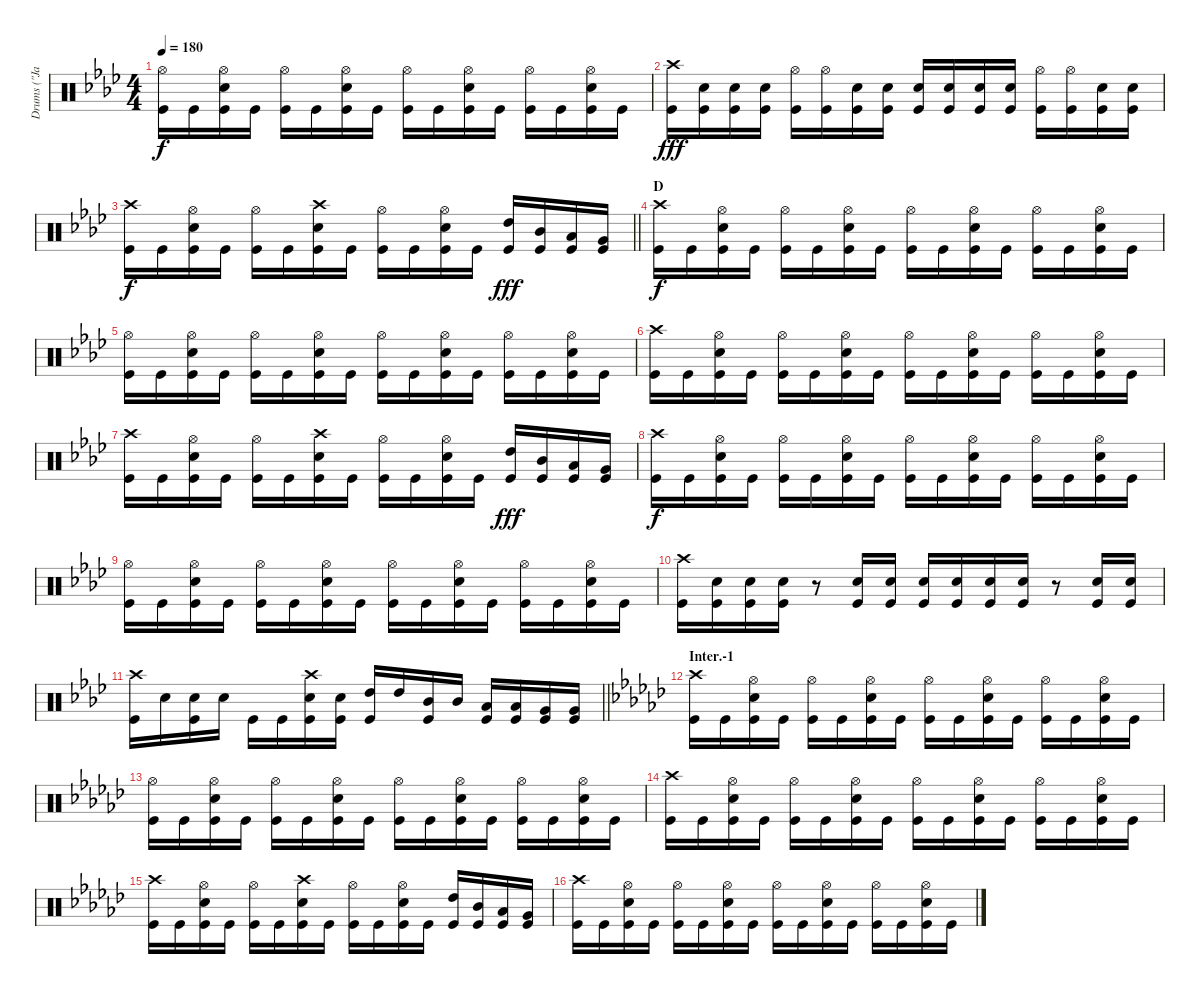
\track ("Drums (\"Jane\")" "Drums (\"Ja") {instrument percussion}
\staff {score}
\articulation defaults
\ts (4 4)
\tempo 180
\clef neutral
\ks ab
("Hi-Hat (open)" "Kick (hit)").16{dy f} "Kick (hit)".16 ("Hi-Hat (open)" "Snare (hit) 2" "Kick (hit)").16 "Kick (hit)".16 ("Hi-Hat (open)" "Kick (hit)").16 "Kick (hit)".16 ("Hi-Hat (open)" "Snare (hit) 2" "Kick (hit)").16 "Kick (hit)".16 ("Hi-Hat (open)" "Kick (hit)").16 "Kick (hit)".16 ("Hi-Hat (open)" "Snare (hit) 2" "Kick (hit)").16 "Kick (hit)".16 ("Hi-Hat (open)" "Kick (hit)").16 "Kick (hit)".16 ("Hi-Hat (open)" "Snare (hit) 2" "Kick (hit)").16 "Kick (hit)".16 |
("Crash high (hit)" "Kick (hit)").16{dy fff} ("Snare (hit) 2" "Kick (hit)").16 ("Snare (hit) 2" "Kick (hit)").16 ("Snare (hit) 2" "Kick (hit)").16 ("Hi-Hat (open)" "Kick (hit)").16 ("Hi-Hat (open)" "Kick (hit)").16 ("Snare (hit) 2" "Kick (hit)").16 ("Snare (hit) 2" "Kick (hit)").16 ("Snare (hit) 2" "Kick (hit)").16 ("Snare (hit) 2" "Kick (hit)").16 ("Snare (hit) 2" "Kick (hit)").16 ("Snare (hit) 2" "Kick (hit)").16 ("Hi-Hat (open)" "Kick (hit)").16 ("Hi-Hat (open)" "Kick (hit)").16 ("Snare (hit) 2" "Kick (hit)").16 ("Snare (hit) 2" "Kick (hit)").16 |
\barLineRight lightlight
("Crash high (hit)" "Kick (hit)").16{dy f} "Kick (hit)".16 ("Hi-Hat (open)" "Snare (hit) 2" "Kick (hit)").16 "Kick (hit)".16 ("Hi-Hat (open)" "Kick (hit)").16 "Kick (hit)".16 ("Crash high (hit)" "Snare (hit) 2" "Kick (hit)").16 "Kick (hit)".16 ("Hi-Hat (open)" "Kick (hit)").16 "Kick (hit)".16 ("Hi-Hat (open)" "Snare (hit) 2" "Kick (hit)").16 "Kick (hit)".16 ("High Tom (hit)" "Kick (hit)").16{dy fff} ("Mid Tom (hit)" "Kick (hit)").16 ("Low Tom (hit)" "Kick (hit)").16 ("Very Low Tom (hit)" "Kick (hit)").16 |
\section ("" "D")
("Crash high (hit)" "Kick (hit)").16{dy f} "Kick (hit)".16 ("Hi-Hat (open)" "Snare (hit) 2" "Kick (hit)").16 "Kick (hit)".16 ("Hi-Hat (open)" "Kick (hit)").16 "Kick (hit)".16 ("Hi-Hat (open)" "Snare (hit) 2" "Kick (hit)").16 "Kick (hit)".16 ("Hi-Hat (open)" "Kick (hit)").16 "Kick (hit)".16 ("Hi-Hat (open)" "Snare (hit) 2" "Kick (hit)").16 "Kick (hit)".16 ("Hi-Hat (open)" "Kick (hit)").16 "Kick (hit)".16 ("Hi-Hat (open)" "Snare (hit) 2" "Kick (hit)").16 "Kick (hit)".16 |
("Hi-Hat (open)" "Kick (hit)").16 "Kick (hit)".16 ("Hi-Hat (open)" "Snare (hit) 2" "Kick (hit)").16 "Kick (hit)".16 ("Hi-Hat (open)" "Kick (hit)").16 "Kick (hit)".16 ("Hi-Hat (open)" "Snare (hit) 2" "Kick (hit)").16 "Kick (hit)".16 ("Hi-Hat (open)" "Kick (hit)").16 "Kick (hit)".16 ("Hi-Hat (open)" "Snare (hit) 2" "Kick (hit)").16 "Kick (hit)".16 ("Hi-Hat (open)" "Kick (hit)").16 "Kick (hit)".16 ("Hi-Hat (open)" "Snare (hit) 2" "Kick (hit)").16 "Kick (hit)".16 |
("Crash high (hit)" "Kick (hit)").16 "Kick (hit)".16 ("Hi-Hat (open)" "Snare (hit) 2" "Kick (hit)").16 "Kick (hit)".16 ("Hi-Hat (open)" "Kick (hit)").16 "Kick (hit)".16 ("Hi-Hat (open)" "Snare (hit) 2" "Kick (hit)").16 "Kick (hit)".16 ("Hi-Hat (open)" "Kick (hit)").16 "Kick (hit)".16 ("Hi-Hat (open)" "Snare (hit) 2" "Kick (hit)").16 "Kick (hit)".16 ("Hi-Hat (open)" "Kick (hit)").16 "Kick (hit)".16 ("Hi-Hat (open)" "Snare (hit) 2" "Kick (hit)").16 "Kick (hit)".16 |
("Crash high (hit)" "Kick (hit)").16 "Kick (hit)".16 ("Hi-Hat (open)" "Snare (hit) 2" "Kick (hit)").16 "Kick (hit)".16 ("Hi-Hat (open)" "Kick (hit)").16 "Kick (hit)".16 ("Crash high (hit)" "Snare (hit) 2" "Kick (hit)").16 "Kick (hit)".16 ("Hi-Hat (open)" "Kick (hit)").16 "Kick (hit)".16 ("Hi-Hat (open)" "Snare (hit) 2" "Kick (hit)").16 "Kick (hit)".16 ("High Tom (hit)" "Kick (hit)").16{dy fff} ("Mid Tom (hit)" "Kick (hit)").16 ("Low Tom (hit)" "Kick (hit)").16 ("Very Low Tom (hit)" "Kick (hit)").16 |
("Crash high (hit)" "Kick (hit)").16{dy f} "Kick (hit)".16 ("Hi-Hat (open)" "Snare (hit) 2" "Kick (hit)").16 "Kick (hit)".16 ("Hi-Hat (open)" "Kick (hit)").16 "Kick (hit)".16 ("Hi-Hat (open)" "Snare (hit) 2" "Kick (hit)").16 "Kick (hit)".16 ("Hi-Hat (open)" "Kick (hit)").16 "Kick (hit)".16 ("Hi-Hat (open)" "Snare (hit) 2" "Kick (hit)").16 "Kick (hit)".16 ("Hi-Hat (open)" "Kick (hit)").16 "Kick (hit)".16 ("Hi-Hat (open)" "Snare (hit) 2" "Kick (hit)").16 "Kick (hit)".16 |
("Hi-Hat (open)" "Kick (hit)").16 "Kick (hit)".16 ("Hi-Hat (open)" "Snare (hit) 2" "Kick (hit)").16 "Kick (hit)".16 ("Hi-Hat (open)" "Kick (hit)").16 "Kick (hit)".16 ("Hi-Hat (open)" "Snare (hit) 2" "Kick (hit)").16 "Kick (hit)".16 ("Hi-Hat (open)" "Kick (hit)").16 "Kick (hit)".16 ("Hi-Hat (open)" "Snare (hit) 2" "Kick (hit)").16 "Kick (hit)".16 ("Hi-Hat (open)" "Kick (hit)").16 "Kick (hit)".16 ("Hi-Hat (open)" "Snare (hit) 2" "Kick (hit)").16 "Kick (hit)".16 |
("Crash high (hit)" "Kick (hit)").16 ("Snare (hit) 2" "Kick (hit)").16 ("Snare (hit) 2" "Kick (hit)").16 ("Snare (hit) 2" "Kick (hit)").16 r.8 ("Snare (hit) 2" "Kick (hit)").16 ("Snare (hit) 2" "Kick (hit)").16 ("Snare (hit) 2" "Kick (hit)").16 ("Snare (hit) 2" "Kick (hit)").16 ("Snare (hit) 2" "Kick (hit)").16 ("Snare (hit) 2" "Kick (hit)").16 r.8 ("Snare (hit) 2" "Kick (hit)").16 ("Snare (hit) 2" "Kick (hit)").16 |
\barLineRight lightlight
("Crash high (hit)" "Kick (hit)").16 "Snare (hit) 2".16 ("Snare (hit) 2" "Kick (hit)").16 "Snare (hit) 2".16 "Kick (hit)".16 "Kick (hit)".16 ("Crash high (hit)" "Snare (hit) 2" "Kick (hit)").16 ("Snare (hit) 2" "Kick (hit)").16 ("High Tom (hit)" "Kick (hit)").16 "High Tom (hit)".16 ("Mid Tom (hit)" "Kick (hit)").16 "Mid Tom (hit)".16 ("Low Tom (hit)" "Kick (hit)").16 ("Low Tom (hit)" "Kick (hit)").16 ("Very Low Tom (hit)" "Kick (hit)").16 ("Very Low Tom (hit)" "Kick (hit)").16 |
\section ("" "Inter.-1")
\ks gb
("Crash high (hit)" "Kick (hit)").16 "Kick (hit)".16 ("Hi-Hat (open)" "Snare (hit) 2" "Kick (hit)").16 "Kick (hit)".16 ("Hi-Hat (open)" "Kick (hit)").16 "Kick (hit)".16 ("Hi-Hat (open)" "Snare (hit) 2" "Kick (hit)").16 "Kick (hit)".16 ("Hi-Hat (open)" "Kick (hit)").16 "Kick (hit)".16 ("Hi-Hat (open)" "Snare (hit) 2" "Kick (hit)").16 "Kick (hit)".16 ("Hi-Hat (open)" "Kick (hit)").16 "Kick (hit)".16 ("Hi-Hat (open)" "Snare (hit) 2" "Kick (hit)").16 "Kick (hit)".16 |
("Hi-Hat (open)" "Kick (hit)").16 "Kick (hit)".16 ("Hi-Hat (open)" "Snare (hit) 2" "Kick (hit)").16 "Kick (hit)".16 ("Hi-Hat (open)" "Kick (hit)").16 "Kick (hit)".16 ("Hi-Hat (open)" "Snare (hit) 2" "Kick (hit)").16 "Kick (hit)".16 ("Hi-Hat (open)" "Kick (hit)").16 "Kick (hit)".16 ("Hi-Hat (open)" "Snare (hit) 2" "Kick (hit)").16 "Kick (hit)".16 ("Hi-Hat (open)" "Kick (hit)").16 "Kick (hit)".16 ("Hi-Hat (open)" "Snare (hit) 2" "Kick (hit)").16 "Kick (hit)".16 |
("Crash high (hit)" "Kick (hit)").16 "Kick (hit)".16 ("Hi-Hat (open)" "Snare (hit) 2" "Kick (hit)").16 "Kick (hit)".16 ("Hi-Hat (open)" "Kick (hit)").16 "Kick (hit)".16 ("Hi-Hat (open)" "Snare (hit) 2" "Kick (hit)").16 "Kick (hit)".16 ("Hi-Hat (open)" "Kick (hit)").16 "Kick (hit)".16 ("Hi-Hat (open)" "Snare (hit) 2" "Kick (hit)").16 "Kick (hit)".16 ("Hi-Hat (open)" "Kick (hit)").16 "Kick (hit)".16 ("Hi-Hat (open)" "Snare (hit) 2" "Kick (hit)").16 "Kick (hit)".16 |
("Crash high (hit)" "Kick (hit)").16 "Kick (hit)".16 ("Hi-Hat (open)" "Snare (hit) 2" "Kick (hit)").16 "Kick (hit)".16 ("Hi-Hat (open)" "Kick (hit)").16 "Kick (hit)".16 ("Crash high (hit)" "Snare (hit) 2" "Kick (hit)").16 "Kick (hit)".16 ("Hi-Hat (open)" "Kick (hit)").16 "Kick (hit)".16 ("Hi-Hat (open)" "Snare (hit) 2" "Kick (hit)").16 "Kick (hit)".16 ("High Tom (hit)" "Kick (hit)").16 ("Mid Tom (hit)" "Kick (hit)").16 ("Low Tom (hit)" "Kick (hit)").16 ("Very Low Tom (hit)" "Kick (hit)").16 |
("Crash high (hit)" "Kick (hit)").16 "Kick (hit)".16 ("Hi-Hat (open)" "Snare (hit) 2" "Kick (hit)").16 "Kick (hit)".16 ("Hi-Hat (open)" "Kick (hit)").16 "Kick (hit)".16 ("Hi-Hat (open)" "Snare (hit) 2" "Kick (hit)").16 "Kick (hit)".16 ("Hi-Hat (open)" "Kick (hit)").16 "Kick (hit)".16 ("Hi-Hat (open)" "Snare (hit) 2" "Kick (hit)").16 "Kick (hit)".16 ("Hi-Hat (open)" "Kick (hit)").16 "Kick (hit)".16 ("Hi-Hat (open)" "Snare (hit) 2" "Kick (hit)").16 "Kick (hit)".16
